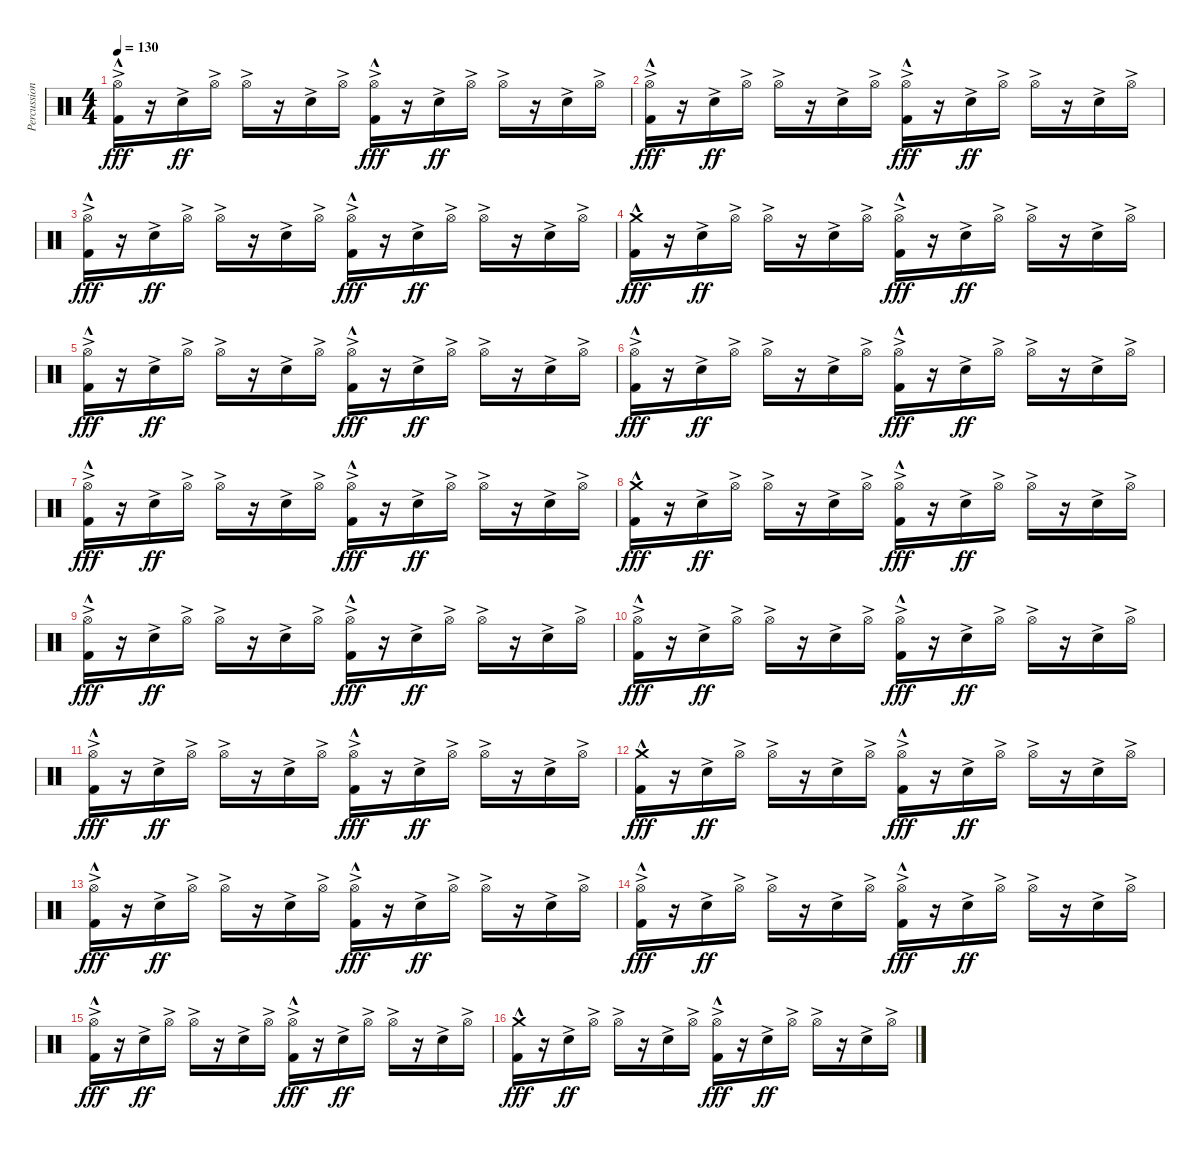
\track ("Percussion" "Percussion") {instrument percussion}
\staff {score}
\articulation defaults
\ts (4 4)
\tempo 130
\clef neutral
\ks c
("Hi-Hat (open)"{ac} "Kick (hit) 2"{hac}).16{dy fff} r.16 "Snare (hit) 2"{ac}.16{dy ff} "Hi-Hat (open)"{ac}.16 "Hi-Hat (open)"{ac}.16 r.16 "Snare (hit) 2"{ac}.16 "Hi-Hat (open)"{ac}.16 ("Hi-Hat (open)"{ac} "Kick (hit) 2"{hac}).16{dy fff} r.16 "Snare (hit) 2"{ac}.16{dy ff} "Hi-Hat (open)"{ac}.16 "Hi-Hat (open)"{ac}.16 r.16 "Snare (hit) 2"{ac}.16 "Hi-Hat (open)"{ac}.16 |
("Hi-Hat (open)"{ac} "Kick (hit) 2"{hac}).16{dy fff} r.16 "Snare (hit) 2"{ac}.16{dy ff} "Hi-Hat (open)"{ac}.16 "Hi-Hat (open)"{ac}.16 r.16 "Snare (hit) 2"{ac}.16 "Hi-Hat (open)"{ac}.16 ("Hi-Hat (open)"{ac} "Kick (hit) 2"{hac}).16{dy fff} r.16 "Snare (hit) 2"{ac}.16{dy ff} "Hi-Hat (open)"{ac}.16 "Hi-Hat (open)"{ac}.16 r.16 "Snare (hit) 2"{ac}.16 "Hi-Hat (open)"{ac}.16 |
("Hi-Hat (open)"{ac} "Kick (hit) 2"{hac}).16{dy fff} r.16 "Snare (hit) 2"{ac}.16{dy ff} "Hi-Hat (open)"{ac}.16 "Hi-Hat (open)"{ac}.16 r.16 "Snare (hit) 2"{ac}.16 "Hi-Hat (open)"{ac}.16 ("Hi-Hat (open)"{ac} "Kick (hit) 2"{hac}).16{dy fff} r.16 "Snare (hit) 2"{ac}.16{dy ff} "Hi-Hat (open)"{ac}.16 "Hi-Hat (open)"{ac}.16 r.16 "Snare (hit) 2"{ac}.16 "Hi-Hat (open)"{ac}.16 |
("Crash medium (hit)"{hac} "Kick (hit) 2"{hac}).16{dy fff} r.16 "Snare (hit) 2"{ac}.16{dy ff} "Hi-Hat (open)"{ac}.16 "Hi-Hat (open)"{ac}.16 r.16 "Snare (hit) 2"{ac}.16 "Hi-Hat (open)"{ac}.16 ("Hi-Hat (open)"{ac} "Kick (hit) 2"{hac}).16{dy fff} r.16 "Snare (hit) 2"{ac}.16{dy ff} "Hi-Hat (open)"{ac}.16 "Hi-Hat (open)"{ac}.16 r.16 "Snare (hit) 2"{ac}.16 "Hi-Hat (open)"{ac}.16 |
("Hi-Hat (open)"{ac} "Kick (hit) 2"{hac}).16{dy fff} r.16 "Snare (hit) 2"{ac}.16{dy ff} "Hi-Hat (open)"{ac}.16 "Hi-Hat (open)"{ac}.16 r.16 "Snare (hit) 2"{ac}.16 "Hi-Hat (open)"{ac}.16 ("Hi-Hat (open)"{ac} "Kick (hit) 2"{hac}).16{dy fff} r.16 "Snare (hit) 2"{ac}.16{dy ff} "Hi-Hat (open)"{ac}.16 "Hi-Hat (open)"{ac}.16 r.16 "Snare (hit) 2"{ac}.16 "Hi-Hat (open)"{ac}.16 |
("Hi-Hat (open)"{ac} "Kick (hit) 2"{hac}).16{dy fff} r.16 "Snare (hit) 2"{ac}.16{dy ff} "Hi-Hat (open)"{ac}.16 "Hi-Hat (open)"{ac}.16 r.16 "Snare (hit) 2"{ac}.16 "Hi-Hat (open)"{ac}.16 ("Hi-Hat (open)"{ac} "Kick (hit) 2"{hac}).16{dy fff} r.16 "Snare (hit) 2"{ac}.16{dy ff} "Hi-Hat (open)"{ac}.16 "Hi-Hat (open)"{ac}.16 r.16 "Snare (hit) 2"{ac}.16 "Hi-Hat (open)"{ac}.16 |
("Hi-Hat (open)"{ac} "Kick (hit) 2"{hac}).16{dy fff} r.16 "Snare (hit) 2"{ac}.16{dy ff} "Hi-Hat (open)"{ac}.16 "Hi-Hat (open)"{ac}.16 r.16 "Snare (hit) 2"{ac}.16 "Hi-Hat (open)"{ac}.16 ("Hi-Hat (open)"{ac} "Kick (hit) 2"{hac}).16{dy fff} r.16 "Snare (hit) 2"{ac}.16{dy ff} "Hi-Hat (open)"{ac}.16 "Hi-Hat (open)"{ac}.16 r.16 "Snare (hit) 2"{ac}.16 "Hi-Hat (open)"{ac}.16 |
("Crash medium (hit)"{hac} "Kick (hit) 2"{hac}).16{dy fff} r.16 "Snare (hit) 2"{ac}.16{dy ff} "Hi-Hat (open)"{ac}.16 "Hi-Hat (open)"{ac}.16 r.16 "Snare (hit) 2"{ac}.16 "Hi-Hat (open)"{ac}.16 ("Hi-Hat (open)"{ac} "Kick (hit) 2"{hac}).16{dy fff} r.16 "Snare (hit) 2"{ac}.16{dy ff} "Hi-Hat (open)"{ac}.16 "Hi-Hat (open)"{ac}.16 r.16 "Snare (hit) 2"{ac}.16 "Hi-Hat (open)"{ac}.16 |
("Hi-Hat (open)"{ac} "Kick (hit) 2"{hac}).16{dy fff} r.16 "Snare (hit) 2"{ac}.16{dy ff} "Hi-Hat (open)"{ac}.16 "Hi-Hat (open)"{ac}.16 r.16 "Snare (hit) 2"{ac}.16 "Hi-Hat (open)"{ac}.16 ("Hi-Hat (open)"{ac} "Kick (hit) 2"{hac}).16{dy fff} r.16 "Snare (hit) 2"{ac}.16{dy ff} "Hi-Hat (open)"{ac}.16 "Hi-Hat (open)"{ac}.16 r.16 "Snare (hit) 2"{ac}.16 "Hi-Hat (open)"{ac}.16 |
("Hi-Hat (open)"{ac} "Kick (hit) 2"{hac}).16{dy fff} r.16 "Snare (hit) 2"{ac}.16{dy ff} "Hi-Hat (open)"{ac}.16 "Hi-Hat (open)"{ac}.16 r.16 "Snare (hit) 2"{ac}.16 "Hi-Hat (open)"{ac}.16 ("Hi-Hat (open)"{ac} "Kick (hit) 2"{hac}).16{dy fff} r.16 "Snare (hit) 2"{ac}.16{dy ff} "Hi-Hat (open)"{ac}.16 "Hi-Hat (open)"{ac}.16 r.16 "Snare (hit) 2"{ac}.16 "Hi-Hat (open)"{ac}.16 |
("Hi-Hat (open)"{ac} "Kick (hit) 2"{hac}).16{dy fff} r.16 "Snare (hit) 2"{ac}.16{dy ff} "Hi-Hat (open)"{ac}.16 "Hi-Hat (open)"{ac}.16 r.16 "Snare (hit) 2"{ac}.16 "Hi-Hat (open)"{ac}.16 ("Hi-Hat (open)"{ac} "Kick (hit) 2"{hac}).16{dy fff} r.16 "Snare (hit) 2"{ac}.16{dy ff} "Hi-Hat (open)"{ac}.16 "Hi-Hat (open)"{ac}.16 r.16 "Snare (hit) 2"{ac}.16 "Hi-Hat (open)"{ac}.16 |
("Crash medium (hit)"{hac} "Kick (hit) 2"{hac}).16{dy fff} r.16 "Snare (hit) 2"{ac}.16{dy ff} "Hi-Hat (open)"{ac}.16 "Hi-Hat (open)"{ac}.16 r.16 "Snare (hit) 2"{ac}.16 "Hi-Hat (open)"{ac}.16 ("Hi-Hat (open)"{ac} "Kick (hit) 2"{hac}).16{dy fff} r.16 "Snare (hit) 2"{ac}.16{dy ff} "Hi-Hat (open)"{ac}.16 "Hi-Hat (open)"{ac}.16 r.16 "Snare (hit) 2"{ac}.16 "Hi-Hat (open)"{ac}.16 |
("Hi-Hat (open)"{ac} "Kick (hit) 2"{hac}).16{dy fff} r.16 "Snare (hit) 2"{ac}.16{dy ff} "Hi-Hat (open)"{ac}.16 "Hi-Hat (open)"{ac}.16 r.16 "Snare (hit) 2"{ac}.16 "Hi-Hat (open)"{ac}.16 ("Hi-Hat (open)"{ac} "Kick (hit) 2"{hac}).16{dy fff} r.16 "Snare (hit) 2"{ac}.16{dy ff} "Hi-Hat (open)"{ac}.16 "Hi-Hat (open)"{ac}.16 r.16 "Snare (hit) 2"{ac}.16 "Hi-Hat (open)"{ac}.16 |
("Hi-Hat (open)"{ac} "Kick (hit) 2"{hac}).16{dy fff} r.16 "Snare (hit) 2"{ac}.16{dy ff} "Hi-Hat (open)"{ac}.16 "Hi-Hat (open)"{ac}.16 r.16 "Snare (hit) 2"{ac}.16 "Hi-Hat (open)"{ac}.16 ("Hi-Hat (open)"{ac} "Kick (hit) 2"{hac}).16{dy fff} r.16 "Snare (hit) 2"{ac}.16{dy ff} "Hi-Hat (open)"{ac}.16 "Hi-Hat (open)"{ac}.16 r.16 "Snare (hit) 2"{ac}.16 "Hi-Hat (open)"{ac}.16 |
("Hi-Hat (open)"{ac} "Kick (hit) 2"{hac}).16{dy fff} r.16 "Snare (hit) 2"{ac}.16{dy ff} "Hi-Hat (open)"{ac}.16 "Hi-Hat (open)"{ac}.16 r.16 "Snare (hit) 2"{ac}.16 "Hi-Hat (open)"{ac}.16 ("Hi-Hat (open)"{ac} "Kick (hit) 2"{hac}).16{dy fff} r.16 "Snare (hit) 2"{ac}.16{dy ff} "Hi-Hat (open)"{ac}.16 "Hi-Hat (open)"{ac}.16 r.16 "Snare (hit) 2"{ac}.16 "Hi-Hat (open)"{ac}.16 |
("Crash medium (hit)"{hac} "Kick (hit) 2"{hac}).16{dy fff} r.16 "Snare (hit) 2"{ac}.16{dy ff} "Hi-Hat (open)"{ac}.16 "Hi-Hat (open)"{ac}.16 r.16 "Snare (hit) 2"{ac}.16 "Hi-Hat (open)"{ac}.16 ("Hi-Hat (open)"{ac} "Kick (hit) 2"{hac}).16{dy fff} r.16 "Snare (hit) 2"{ac}.16{dy ff} "Hi-Hat (open)"{ac}.16 "Hi-Hat (open)"{ac}.16 r.16 "Snare (hit) 2"{ac}.16 "Hi-Hat (open)"{ac}.16
